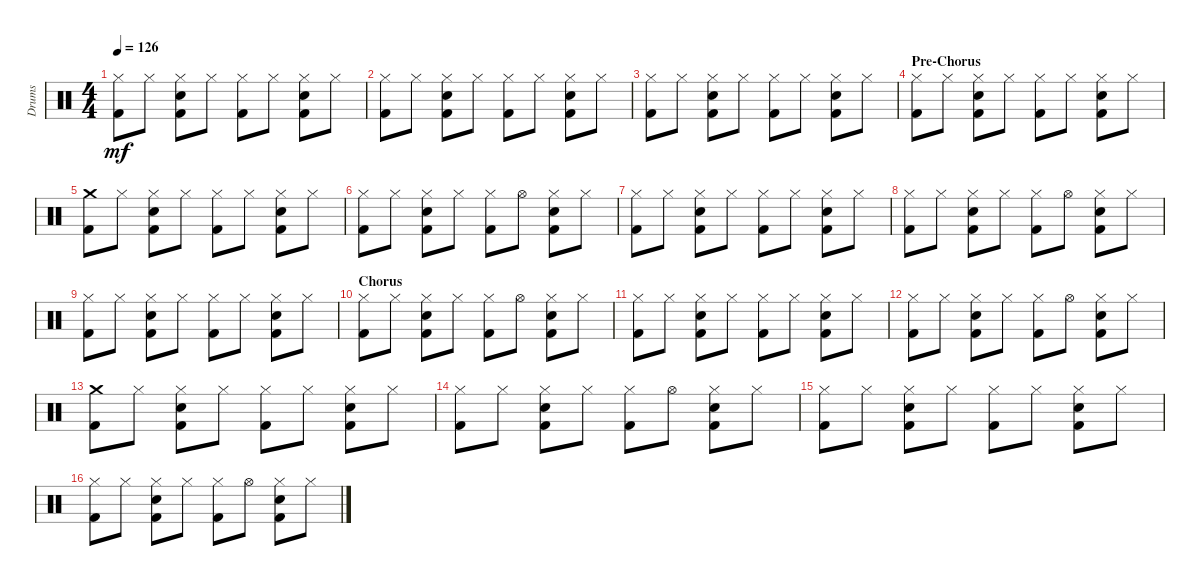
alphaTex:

\track ("Drums" "Drums") {instrument percussion}
\staff {score}
\articulation defaults
\ts (4 4)
\tempo 126
\clef neutral
\ks c
("Hi-Hat (closed)" "Kick (hit) 2").8{dy mf} "Hi-Hat (closed)".8 ("Hi-Hat (closed)" "Snare (hit) 2" "Kick (hit) 2").8 "Hi-Hat (closed)".8 ("Hi-Hat (closed)" "Kick (hit) 2").8 "Hi-Hat (closed)".8 ("Hi-Hat (closed)" "Snare (hit) 2" "Kick (hit) 2").8 "Hi-Hat (closed)".8 |
("Hi-Hat (closed)" "Kick (hit) 2").8 "Hi-Hat (closed)".8 ("Hi-Hat (closed)" "Snare (hit) 2" "Kick (hit) 2").8 "Hi-Hat (closed)".8 ("Hi-Hat (closed)" "Kick (hit) 2").8 "Hi-Hat (closed)".8 ("Hi-Hat (closed)" "Snare (hit) 2" "Kick (hit) 2").8 "Hi-Hat (closed)".8 |
("Hi-Hat (closed)" "Kick (hit) 2").8 "Hi-Hat (closed)".8 ("Hi-Hat (closed)" "Snare (hit) 2" "Kick (hit) 2").8 "Hi-Hat (closed)".8 ("Hi-Hat (closed)" "Kick (hit) 2").8 "Hi-Hat (closed)".8 ("Hi-Hat (closed)" "Snare (hit) 2" "Kick (hit) 2").8 "Hi-Hat (closed)".8 |
\section ("" "Pre-Chorus")
("Hi-Hat (closed)" "Kick (hit) 2").8 "Hi-Hat (closed)".8 ("Hi-Hat (closed)" "Snare (hit) 2" "Kick (hit) 2").8 "Hi-Hat (closed)".8 ("Hi-Hat (closed)" "Kick (hit) 2").8 "Hi-Hat (closed)".8 ("Hi-Hat (closed)" "Snare (hit) 2" "Kick (hit) 2").8 "Hi-Hat (closed)".8 |
("Crash medium (hit)" "Kick (hit) 2").8 "Hi-Hat (closed)".8 ("Hi-Hat (closed)" "Snare (hit) 2" "Kick (hit) 2").8 "Hi-Hat (closed)".8 ("Hi-Hat (closed)" "Kick (hit) 2").8 "Hi-Hat (closed)".8 ("Hi-Hat (closed)" "Snare (hit) 2" "Kick (hit) 2").8 "Hi-Hat (closed)".8 |
("Hi-Hat (closed)" "Kick (hit) 2").8 "Hi-Hat (closed)".8 ("Hi-Hat (closed)" "Snare (hit) 2" "Kick (hit) 2").8 "Hi-Hat (closed)".8 ("Hi-Hat (closed)" "Kick (hit) 2").8 "Hi-Hat (open)".8 ("Hi-Hat (closed)" "Snare (hit) 2" "Kick (hit) 2").8 "Hi-Hat (closed)".8 |
("Hi-Hat (closed)" "Kick (hit) 2").8 "Hi-Hat (closed)".8 ("Hi-Hat (closed)" "Snare (hit) 2" "Kick (hit) 2").8 "Hi-Hat (closed)".8 ("Hi-Hat (closed)" "Kick (hit) 2").8 "Hi-Hat (closed)".8 ("Hi-Hat (closed)" "Snare (hit) 2" "Kick (hit) 2").8 "Hi-Hat (closed)".8 |
("Hi-Hat (closed)" "Kick (hit) 2").8 "Hi-Hat (closed)".8 ("Hi-Hat (closed)" "Snare (hit) 2" "Kick (hit) 2").8 "Hi-Hat (closed)".8 ("Hi-Hat (closed)" "Kick (hit) 2").8 "Hi-Hat (open)".8 ("Hi-Hat (closed)" "Snare (hit) 2" "Kick (hit) 2").8 "Hi-Hat (closed)".8 |
("Hi-Hat (closed)" "Kick (hit) 2").8 "Hi-Hat (closed)".8 ("Hi-Hat (closed)" "Snare (hit) 2" "Kick (hit) 2").8 "Hi-Hat (closed)".8 ("Hi-Hat (closed)" "Kick (hit) 2").8 "Hi-Hat (closed)".8 ("Hi-Hat (closed)" "Snare (hit) 2" "Kick (hit) 2").8 "Hi-Hat (closed)".8 |
\section ("" "Chorus")
("Hi-Hat (closed)" "Kick (hit) 2").8 "Hi-Hat (closed)".8 ("Hi-Hat (closed)" "Snare (hit) 2" "Kick (hit) 2").8 "Hi-Hat (closed)".8 ("Hi-Hat (closed)" "Kick (hit) 2").8 "Hi-Hat (open)".8 ("Hi-Hat (closed)" "Snare (hit) 2" "Kick (hit) 2").8 "Hi-Hat (closed)".8 |
("Hi-Hat (closed)" "Kick (hit) 2").8 "Hi-Hat (closed)".8 ("Hi-Hat (closed)" "Snare (hit) 2" "Kick (hit) 2").8 "Hi-Hat (closed)".8 ("Hi-Hat (closed)" "Kick (hit) 2").8 "Hi-Hat (closed)".8 ("Hi-Hat (closed)" "Snare (hit) 2" "Kick (hit) 2").8 "Hi-Hat (closed)".8 |
("Hi-Hat (closed)" "Kick (hit) 2").8 "Hi-Hat (closed)".8 ("Hi-Hat (closed)" "Snare (hit) 2" "Kick (hit) 2").8 "Hi-Hat (closed)".8 ("Hi-Hat (closed)" "Kick (hit) 2").8 "Hi-Hat (open)".8 ("Hi-Hat (closed)" "Snare (hit) 2" "Kick (hit) 2").8 "Hi-Hat (closed)".8 |
("Crash medium (hit)" "Kick (hit) 2").8 "Hi-Hat (closed)".8 ("Hi-Hat (closed)" "Snare (hit) 2" "Kick (hit) 2").8 "Hi-Hat (closed)".8 ("Hi-Hat (closed)" "Kick (hit) 2").8 "Hi-Hat (closed)".8 ("Hi-Hat (closed)" "Snare (hit) 2" "Kick (hit) 2").8 "Hi-Hat (closed)".8 |
("Hi-Hat (closed)" "Kick (hit) 2").8 "Hi-Hat (closed)".8 ("Hi-Hat (closed)" "Snare (hit) 2" "Kick (hit) 2").8 "Hi-Hat (closed)".8 ("Hi-Hat (closed)" "Kick (hit) 2").8 "Hi-Hat (open)".8 ("Hi-Hat (closed)" "Snare (hit) 2" "Kick (hit) 2").8 "Hi-Hat (closed)".8 |
("Hi-Hat (closed)" "Kick (hit) 2").8 "Hi-Hat (closed)".8 ("Hi-Hat (closed)" "Snare (hit) 2" "Kick (hit) 2").8 "Hi-Hat (closed)".8 ("Hi-Hat (closed)" "Kick (hit) 2").8 "Hi-Hat (closed)".8 ("Hi-Hat (closed)" "Snare (hit) 2" "Kick (hit) 2").8 "Hi-Hat (closed)".8 |
("Hi-Hat (closed)" "Kick (hit) 2").8 "Hi-Hat (closed)".8 ("Hi-Hat (closed)" "Snare (hit) 2" "Kick (hit) 2").8 "Hi-Hat (closed)".8 ("Hi-Hat (closed)" "Kick (hit) 2").8 "Hi-Hat (open)".8 ("Hi-Hat (closed)" "Snare (hit) 2" "Kick (hit) 2").8 "Hi-Hat (closed)".8
